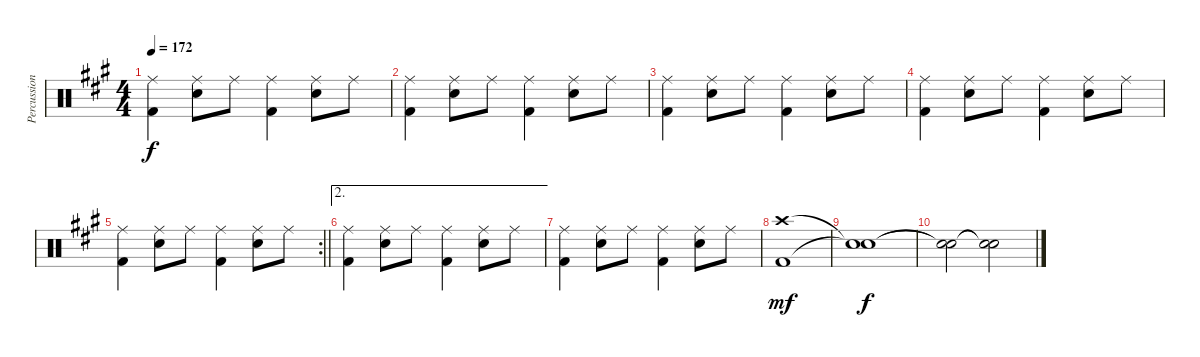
\track ("Percussion" "Percussion") {instrument percussion}
\staff {score}
\articulation defaults
\ts (4 4)
\tempo 172
\clef neutral
\ks a
("Ride (middle)" "Kick (hit) 2").4{dy f} ("Ride (middle)" "Snare (hit) 2").8 "Ride (middle)".8 ("Ride (middle)" "Kick (hit) 2").4 ("Ride (middle)" "Snare (hit) 2").8 "Ride (middle)".8 |
("Ride (middle)" "Kick (hit) 2").4 ("Ride (middle)" "Snare (hit) 2").8 "Ride (middle)".8 ("Ride (middle)" "Kick (hit) 2").4 ("Ride (middle)" "Snare (hit) 2").8 "Ride (middle)".8 |
("Ride (middle)" "Kick (hit) 2").4 ("Ride (middle)" "Snare (hit) 2").8 "Ride (middle)".8 ("Ride (middle)" "Kick (hit) 2").4 ("Ride (middle)" "Snare (hit) 2").8 "Ride (middle)".8 |
("Ride (middle)" "Kick (hit) 2").4 ("Ride (middle)" "Snare (hit) 2").8 "Ride (middle)".8 ("Ride (middle)" "Kick (hit) 2").4 ("Ride (middle)" "Snare (hit) 2").8 "Ride (middle)".8 |
\rc 2
\barLineRight lightlight
("Ride (middle)" "Kick (hit) 2").4 ("Ride (middle)" "Snare (hit) 2").8 "Ride (middle)".8 ("Ride (middle)" "Kick (hit) 2").4 ("Ride (middle)" "Snare (hit) 2").8 "Ride (middle)".8 |
\ae 2
("Ride (middle)" "Kick (hit) 2").4 ("Ride (middle)" "Snare (hit) 2").8 "Ride (middle)".8 ("Ride (middle)" "Kick (hit) 2").4 ("Ride (middle)" "Snare (hit) 2").8 "Ride (middle)".8 |
("Ride (middle)" "Kick (hit) 2").4 ("Ride (middle)" "Snare (hit) 2").8 "Ride (middle)".8 ("Ride (middle)" "Kick (hit) 2").4 ("Ride (middle)" "Snare (hit) 2").8 "Ride (middle)".8 |
("Crash high (hit)" "Kick (hit) 2").1{dy mf} |
("Snare (hit)"{t} "Snare (hit)"{t}).1{dy f} |
("Snare (hit)"{t} "Snare (hit)"{t}).2 ("Snare (hit)"{t} "Snare (hit)"{t}).2
